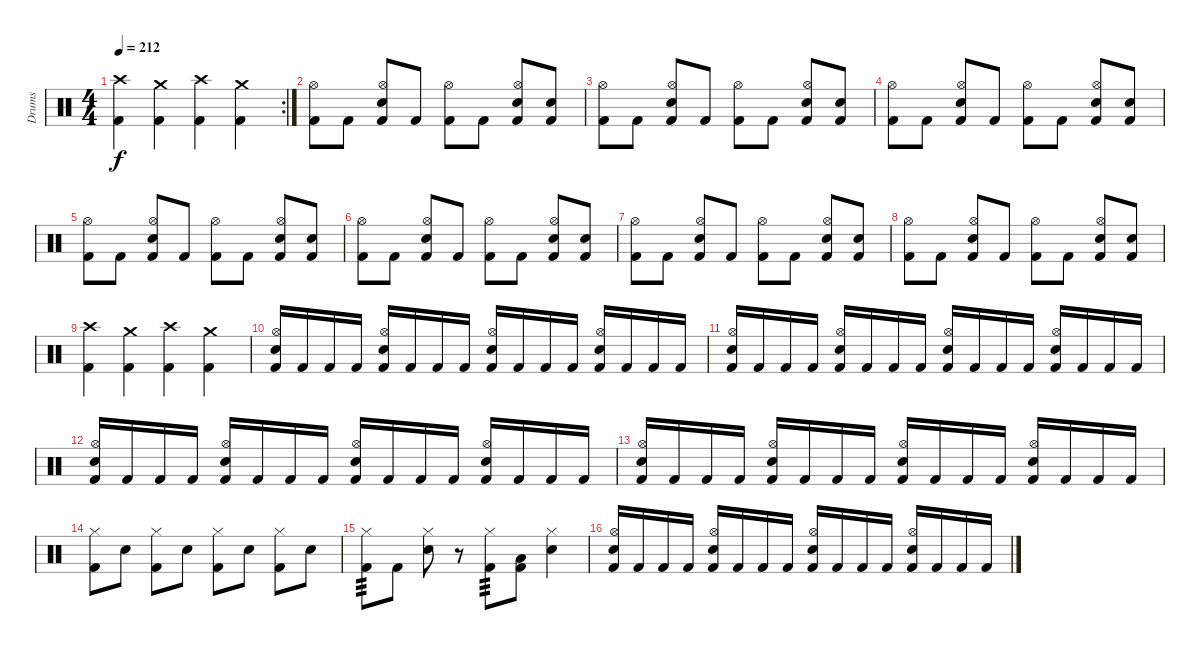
\track ("Drums" "Drums") {instrument percussion}
\staff {score}
\articulation defaults
\rc 2
\ts (4 4)
\tempo 212
\clef neutral
\ks c
("Crash high (hit)" "Kick (hit) 2").4{dy f} ("Crash medium (hit)" "Kick (hit) 2").4 ("Crash high (hit)" "Kick (hit) 2").4 ("Crash medium (hit)" "Kick (hit) 2").4 |
("Hi-Hat (open)" "Kick (hit) 2").8 "Kick (hit) 2".8 ("Hi-Hat (open)" "Snare (hit) 2" "Kick (hit) 2").8 "Kick (hit) 2".8 ("Hi-Hat (open)" "Kick (hit) 2").8 "Kick (hit) 2".8 ("Hi-Hat (open)" "Snare (hit) 2" "Kick (hit) 2").8 ("Snare (hit) 2" "Kick (hit) 2").8 |
("Hi-Hat (open)" "Kick (hit) 2").8 "Kick (hit) 2".8 ("Hi-Hat (open)" "Snare (hit) 2" "Kick (hit) 2").8 "Kick (hit) 2".8 ("Hi-Hat (open)" "Kick (hit) 2").8 "Kick (hit) 2".8 ("Hi-Hat (open)" "Snare (hit) 2" "Kick (hit) 2").8 ("Snare (hit) 2" "Kick (hit) 2").8 |
("Hi-Hat (open)" "Kick (hit) 2").8 "Kick (hit) 2".8 ("Hi-Hat (open)" "Snare (hit) 2" "Kick (hit) 2").8 "Kick (hit) 2".8 ("Hi-Hat (open)" "Kick (hit) 2").8 "Kick (hit) 2".8 ("Hi-Hat (open)" "Snare (hit) 2" "Kick (hit) 2").8 ("Snare (hit) 2" "Kick (hit) 2").8 |
("Hi-Hat (open)" "Kick (hit) 2").8 "Kick (hit) 2".8 ("Hi-Hat (open)" "Snare (hit) 2" "Kick (hit) 2").8 "Kick (hit) 2".8 ("Hi-Hat (open)" "Kick (hit) 2").8 "Kick (hit) 2".8 ("Hi-Hat (open)" "Snare (hit) 2" "Kick (hit) 2").8 ("Snare (hit) 2" "Kick (hit) 2").8 |
("Hi-Hat (open)" "Kick (hit) 2").8 "Kick (hit) 2".8 ("Hi-Hat (open)" "Snare (hit) 2" "Kick (hit) 2").8 "Kick (hit) 2".8 ("Hi-Hat (open)" "Kick (hit) 2").8 "Kick (hit) 2".8 ("Hi-Hat (open)" "Snare (hit) 2" "Kick (hit) 2").8 ("Snare (hit) 2" "Kick (hit) 2").8 |
("Hi-Hat (open)" "Kick (hit) 2").8 "Kick (hit) 2".8 ("Hi-Hat (open)" "Snare (hit) 2" "Kick (hit) 2").8 "Kick (hit) 2".8 ("Hi-Hat (open)" "Kick (hit) 2").8 "Kick (hit) 2".8 ("Hi-Hat (open)" "Snare (hit) 2" "Kick (hit) 2").8 ("Snare (hit) 2" "Kick (hit) 2").8 |
("Hi-Hat (open)" "Kick (hit) 2").8 "Kick (hit) 2".8 ("Hi-Hat (open)" "Snare (hit) 2" "Kick (hit) 2").8 "Kick (hit) 2".8 ("Hi-Hat (open)" "Kick (hit) 2").8 "Kick (hit) 2".8 ("Hi-Hat (open)" "Snare (hit) 2" "Kick (hit) 2").8 ("Snare (hit) 2" "Kick (hit) 2").8 |
("Crash high (hit)" "Kick (hit) 2").4 ("Crash medium (hit)" "Kick (hit) 2").4 ("Crash high (hit)" "Kick (hit) 2").4 ("Crash medium (hit)" "Kick (hit) 2").4 |
("Hi-Hat (open)" "Snare (hit) 2" "Kick (hit) 2").16 "Kick (hit) 2".16 "Kick (hit) 2".16 "Kick (hit) 2".16 ("Hi-Hat (open)" "Snare (hit) 2" "Kick (hit) 2").16 "Kick (hit) 2".16 "Kick (hit) 2".16 "Kick (hit) 2".16 ("Hi-Hat (open)" "Snare (hit) 2" "Kick (hit) 2").16 "Kick (hit) 2".16 "Kick (hit) 2".16 "Kick (hit) 2".16 ("Hi-Hat (open)" "Snare (hit) 2" "Kick (hit) 2").16 "Kick (hit) 2".16 "Kick (hit) 2".16 "Kick (hit) 2".16 |
("Hi-Hat (open)" "Snare (hit) 2" "Kick (hit) 2").16 "Kick (hit) 2".16 "Kick (hit) 2".16 "Kick (hit) 2".16 ("Hi-Hat (open)" "Snare (hit) 2" "Kick (hit) 2").16 "Kick (hit) 2".16 "Kick (hit) 2".16 "Kick (hit) 2".16 ("Hi-Hat (open)" "Snare (hit) 2" "Kick (hit) 2").16 "Kick (hit) 2".16 "Kick (hit) 2".16 "Kick (hit) 2".16 ("Hi-Hat (open)" "Snare (hit) 2" "Kick (hit) 2").16 "Kick (hit) 2".16 "Kick (hit) 2".16 "Kick (hit) 2".16 |
("Hi-Hat (open)" "Snare (hit) 2" "Kick (hit) 2").16 "Kick (hit) 2".16 "Kick (hit) 2".16 "Kick (hit) 2".16 ("Hi-Hat (open)" "Snare (hit) 2" "Kick (hit) 2").16 "Kick (hit) 2".16 "Kick (hit) 2".16 "Kick (hit) 2".16 ("Hi-Hat (open)" "Snare (hit) 2" "Kick (hit) 2").16 "Kick (hit) 2".16 "Kick (hit) 2".16 "Kick (hit) 2".16 ("Hi-Hat (open)" "Snare (hit) 2" "Kick (hit) 2").16 "Kick (hit) 2".16 "Kick (hit) 2".16 "Kick (hit) 2".16 |
("Hi-Hat (open)" "Snare (hit) 2" "Kick (hit) 2").16 "Kick (hit) 2".16 "Kick (hit) 2".16 "Kick (hit) 2".16 ("Hi-Hat (open)" "Snare (hit) 2" "Kick (hit) 2").16 "Kick (hit) 2".16 "Kick (hit) 2".16 "Kick (hit) 2".16 ("Hi-Hat (open)" "Snare (hit) 2" "Kick (hit) 2").16 "Kick (hit) 2".16 "Kick (hit) 2".16 "Kick (hit) 2".16 ("Hi-Hat (open)" "Snare (hit) 2" "Kick (hit) 2").16 "Kick (hit) 2".16 "Kick (hit) 2".16 "Kick (hit) 2".16 |
("Hi-Hat (closed)" "Kick (hit) 2").8 "Snare (hit) 2".8 ("Hi-Hat (closed)" "Kick (hit) 2").8 "Snare (hit) 2".8 ("Hi-Hat (closed)" "Kick (hit) 2").8 "Snare (hit) 2".8 ("Hi-Hat (closed)" "Kick (hit) 2").8 "Snare (hit) 2".8 |
("Hi-Hat (closed)" "Kick (hit) 2").8{tp 3} "Kick (hit) 2".8 ("Hi-Hat (closed)" "Snare (hit) 2").8 r.8 ("Hi-Hat (closed)" "Kick (hit) 2").8{tp 3} ("Low Tom (hit)" "Kick (hit) 2").8 ("Hi-Hat (closed)" "Snare (hit) 2").4 |
("Hi-Hat (open)" "Snare (hit) 2" "Kick (hit) 2").16 "Kick (hit) 2".16 "Kick (hit) 2".16 "Kick (hit) 2".16 ("Hi-Hat (open)" "Snare (hit) 2" "Kick (hit) 2").16 "Kick (hit) 2".16 "Kick (hit) 2".16 "Kick (hit) 2".16 ("Hi-Hat (open)" "Snare (hit) 2" "Kick (hit) 2").16 "Kick (hit) 2".16 "Kick (hit) 2".16 "Kick (hit) 2".16 ("Hi-Hat (open)" "Snare (hit) 2" "Kick (hit) 2").16 "Kick (hit) 2".16 "Kick (hit) 2".16 "Kick (hit) 2".16
